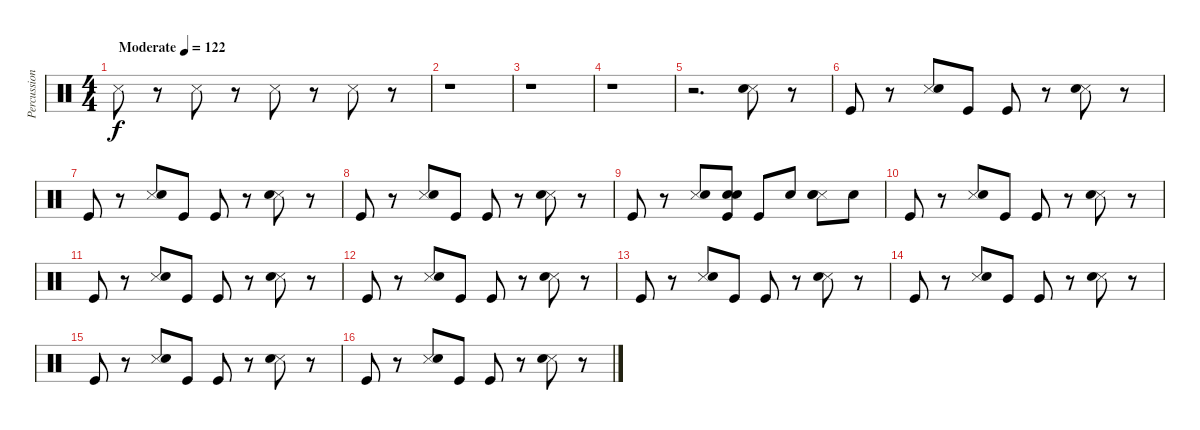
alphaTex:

\track ("Percussion" "Percussion") {instrument percussion}
\staff {score}
\articulation defaults
\ts (4 4)
\tempo (122 "Moderate")
\clef neutral
\ks c "Snare (side stick) 3".8{dy f}
r.8 "Snare (side stick) 3".8 r.8 "Snare (side stick) 3".8 r.8 "Snare (side stick) 3".8 r.8 |
r.1 |
r.1 |
r.1 |
r.2{d} ("Snare (side stick) 3" "Snare (hit) 2").8 r.8 |
"Kick (hit)".8 r.8 ("Snare (side stick) 3" "Snare (hit) 2").8 "Kick (hit)".8 "Kick (hit)".8 r.8 ("Snare (side stick) 3" "Snare (hit) 2").8 r.8 |
"Kick (hit)".8 r.8 ("Snare (side stick) 3" "Snare (hit) 2").8 "Kick (hit)".8 "Kick (hit)".8 r.8 ("Snare (side stick) 3" "Snare (hit) 2").8 r.8 |
"Kick (hit)".8 r.8 ("Snare (side stick) 3" "Snare (hit) 2").8 "Kick (hit)".8 "Kick (hit)".8 r.8 ("Snare (side stick) 3" "Snare (hit) 2").8 r.8 |
"Kick (hit)".8 r.8 ("Snare (side stick) 3" "Snare (hit) 2").8 ("Snare (hit) 2" "Kick (hit)" "Snare (hit) 2").8 "Kick (hit)".8 "Snare (hit) 2".8 ("Snare (side stick) 3" "Snare (hit) 2" "Snare (hit) 2").8 "Snare (hit) 2".8 |
"Kick (hit)".8 r.8 ("Snare (side stick) 3" "Snare (hit) 2").8 "Kick (hit)".8 "Kick (hit)".8 r.8 ("Snare (side stick) 3" "Snare (hit) 2").8 r.8 |
"Kick (hit)".8 r.8 ("Snare (side stick) 3" "Snare (hit) 2").8 "Kick (hit)".8 "Kick (hit)".8 r.8 ("Snare (side stick) 3" "Snare (hit) 2").8 r.8 |
"Kick (hit)".8 r.8 ("Snare (side stick) 3" "Snare (hit) 2").8 "Kick (hit)".8 "Kick (hit)".8 r.8 ("Snare (side stick) 3" "Snare (hit) 2").8 r.8 |
"Kick (hit)".8 r.8 ("Snare (side stick) 3" "Snare (hit) 2").8 "Kick (hit)".8 "Kick (hit)".8 r.8 ("Snare (side stick) 3" "Snare (hit) 2").8 r.8 |
"Kick (hit)".8 r.8 ("Snare (side stick) 3" "Snare (hit) 2").8 "Kick (hit)".8 "Kick (hit)".8 r.8 ("Snare (side stick) 3" "Snare (hit) 2").8 r.8 |
"Kick (hit)".8 r.8 ("Snare (side stick) 3" "Snare (hit) 2").8 "Kick (hit)".8 "Kick (hit)".8 r.8 ("Snare (side stick) 3" "Snare (hit) 2").8 r.8 |
"Kick (hit)".8 r.8 ("Snare (side stick) 3" "Snare (hit) 2").8 "Kick (hit)".8 "Kick (hit)".8 r.8 ("Snare (side stick) 3" "Snare (hit) 2").8 r.8
